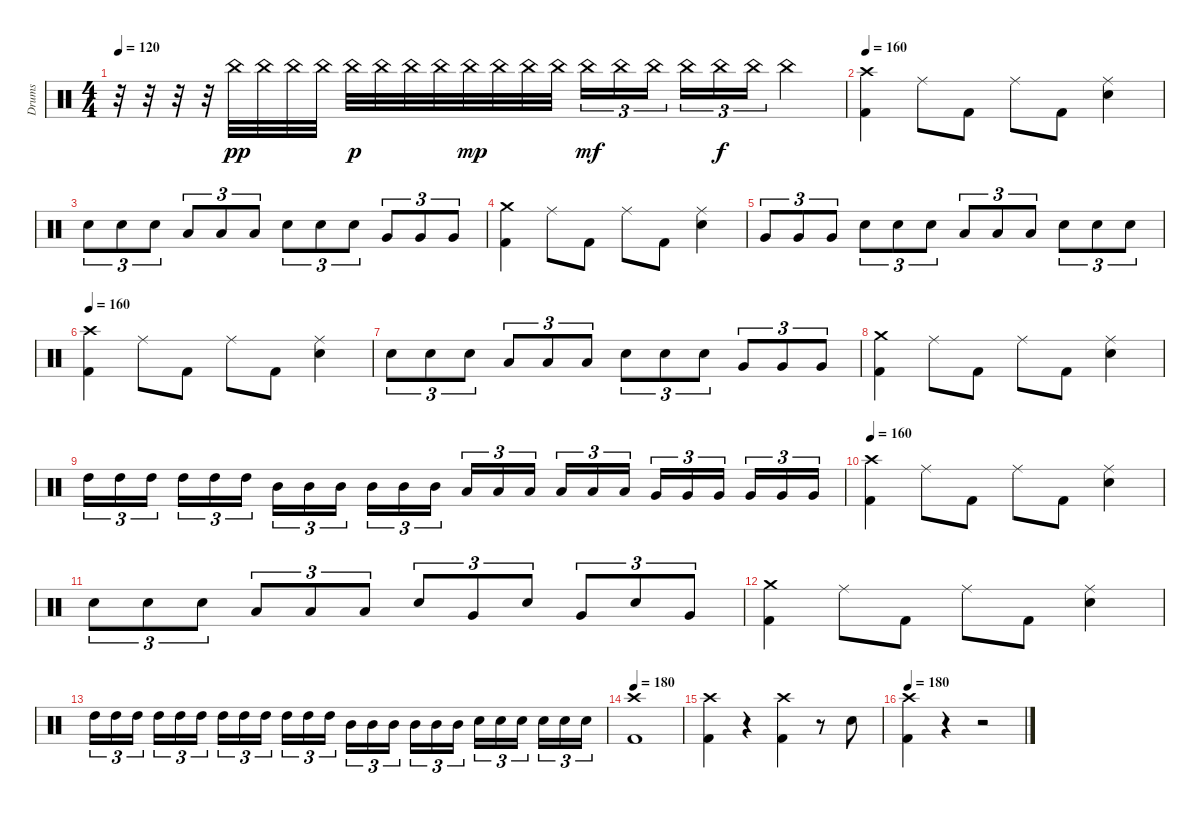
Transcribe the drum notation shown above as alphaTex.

\track ("Drums" "Drums") {instrument percussion}
\staff {score}
\articulation defaults
\ts (4 4)
\tempo 120
\clef neutral
\ks c
r.32{dy f} r.32 r.32 r.32 "China (hit)".32{dy pp} "China (hit)".32 "China (hit)".32 "China (hit)".32 "China (hit)".32{dy p} "China (hit)".32 "China (hit)".32 "China (hit)".32 "China (hit)".32{dy mp} "China (hit)".32 "China (hit)".32 "China (hit)".32 "China (hit)".16{tu (3 2) dy mf} "China (hit)".16{tu (3 2)} "China (hit)".16{tu (3 2)} "China (hit)".16{tu (3 2)} "China (hit)".16{tu (3 2) dy f} "China (hit)".16{tu (3 2)} "China (hit)".4 |
\tempo 160
("Crash high (hit)" "Kick (hit) 2").4 "Ride (middle)".8 "Kick (hit) 2".8 "Ride (middle)".8 "Kick (hit) 2".8 ("Ride (middle)" "Electric Snare (hit)").4 |
"Electric Snare (hit)".8{tu (3 2)} "Electric Snare (hit)".8{tu (3 2)} "Electric Snare (hit)".8{tu (3 2)} "Low Tom (hit)".8{tu (3 2)} "Low Tom (hit)".8{tu (3 2)} "Low Tom (hit)".8{tu (3 2)} "Electric Snare (hit)".8{tu (3 2)} "Electric Snare (hit)".8{tu (3 2)} "Electric Snare (hit)".8{tu (3 2)} "Very Low Tom (hit)".8{tu (3 2)} "Very Low Tom (hit)".8{tu (3 2)} "Very Low Tom (hit)".8{tu (3 2)} |
("Crash medium (hit)" "Kick (hit) 2").4 "Ride (middle)".8 "Kick (hit) 2".8 "Ride (middle)".8 "Kick (hit) 2".8 ("Ride (middle)" "Electric Snare (hit)").4 |
"Very Low Tom (hit)".8{tu (3 2)} "Very Low Tom (hit)".8{tu (3 2)} "Very Low Tom (hit)".8{tu (3 2)} "Electric Snare (hit)".8{tu (3 2)} "Electric Snare (hit)".8{tu (3 2)} "Electric Snare (hit)".8{tu (3 2)} "Low Tom (hit)".8{tu (3 2)} "Low Tom (hit)".8{tu (3 2)} "Low Tom (hit)".8{tu (3 2)} "Electric Snare (hit)".8{tu (3 2)} "Electric Snare (hit)".8{tu (3 2)} "Electric Snare (hit)".8{tu (3 2)} |
\tempo 160
("Crash high (hit)" "Kick (hit) 2").4 "Ride (middle)".8 "Kick (hit) 2".8 "Ride (middle)".8 "Kick (hit) 2".8 ("Ride (middle)" "Electric Snare (hit)").4 |
"Electric Snare (hit)".8{tu (3 2)} "Electric Snare (hit)".8{tu (3 2)} "Electric Snare (hit)".8{tu (3 2)} "Low Tom (hit)".8{tu (3 2)} "Low Tom (hit)".8{tu (3 2)} "Low Tom (hit)".8{tu (3 2)} "Electric Snare (hit)".8{tu (3 2)} "Electric Snare (hit)".8{tu (3 2)} "Electric Snare (hit)".8{tu (3 2)} "Very Low Tom (hit)".8{tu (3 2)} "Very Low Tom (hit)".8{tu (3 2)} "Very Low Tom (hit)".8{tu (3 2)} |
("Crash medium (hit)" "Kick (hit) 2").4 "Ride (middle)".8 "Kick (hit) 2".8 "Ride (middle)".8 "Kick (hit) 2".8 ("Ride (middle)" "Electric Snare (hit)").4 |
"High Tom (hit)".16{tu (3 2)} "High Tom (hit)".16{tu (3 2)} "High Tom (hit)".16{tu (3 2)} "High Tom (hit)".16{tu (3 2)} "High Tom (hit)".16{tu (3 2)} "High Tom (hit)".16{tu (3 2)} "Mid Tom (hit)".16{tu (3 2)} "Mid Tom (hit)".16{tu (3 2)} "Mid Tom (hit)".16{tu (3 2)} "Mid Tom (hit)".16{tu (3 2)} "Mid Tom (hit)".16{tu (3 2)} "Mid Tom (hit)".16{tu (3 2)} "Low Tom (hit)".16{tu (3 2)} "Low Tom (hit)".16{tu (3 2)} "Low Tom (hit)".16{tu (3 2)} "Low Tom (hit)".16{tu (3 2)} "Low Tom (hit)".16{tu (3 2)} "Low Tom (hit)".16{tu (3 2)} "Very Low Tom (hit)".16{tu (3 2)} "Very Low Tom (hit)".16{tu (3 2)} "Very Low Tom (hit)".16{tu (3 2)} "Very Low Tom (hit)".16{tu (3 2)} "Very Low Tom (hit)".16{tu (3 2)} "Very Low Tom (hit)".16{tu (3 2)} |
\tempo 160
("Crash high (hit)" "Kick (hit) 2").4 "Ride (middle)".8 "Kick (hit) 2".8 "Ride (middle)".8 "Kick (hit) 2".8 ("Ride (middle)" "Electric Snare (hit)").4 |
"Electric Snare (hit)".8{tu (3 2)} "Electric Snare (hit)".8{tu (3 2)} "Electric Snare (hit)".8{tu (3 2)} "Low Tom (hit)".8{tu (3 2)} "Low Tom (hit)".8{tu (3 2)} "Low Tom (hit)".8{tu (3 2)} "Electric Snare (hit)".8{tu (3 2)} "Very Low Tom (hit)".8{tu (3 2)} "Electric Snare (hit)".8{tu (3 2)} "Very Low Tom (hit)".8{tu (3 2)} "Electric Snare (hit)".8{tu (3 2)} "Very Low Tom (hit)".8{tu (3 2)} |
("Crash medium (hit)" "Kick (hit) 2").4 "Ride (middle)".8 "Kick (hit) 2".8 "Ride (middle)".8 "Kick (hit) 2".8 ("Ride (middle)" "Electric Snare (hit)").4 |
"High Tom (hit)".16{tu (3 2)} "High Tom (hit)".16{tu (3 2)} "High Tom (hit)".16{tu (3 2)} "High Tom (hit)".16{tu (3 2)} "High Tom (hit)".16{tu (3 2)} "High Tom (hit)".16{tu (3 2)} "High Tom (hit)".16{tu (3 2)} "High Tom (hit)".16{tu (3 2)} "High Tom (hit)".16{tu (3 2)} "High Tom (hit)".16{tu (3 2)} "High Tom (hit)".16{tu (3 2)} "High Tom (hit)".16{tu (3 2)} "Mid Tom (hit)".16{tu (3 2)} "Mid Tom (hit)".16{tu (3 2)} "Mid Tom (hit)".16{tu (3 2)} "Mid Tom (hit)".16{tu (3 2)} "Mid Tom (hit)".16{tu (3 2)} "Mid Tom (hit)".16{tu (3 2)} "Electric Snare (hit)".16{tu (3 2)} "Electric Snare (hit)".16{tu (3 2)} "Electric Snare (hit)".16{tu (3 2)} "Electric Snare (hit)".16{tu (3 2)} "Electric Snare (hit)".16{tu (3 2)} "Electric Snare (hit)".16{tu (3 2)} |
\tempo 180
("Crash high (hit)" "Kick (hit) 2").1 |
("Crash high (hit)" "Kick (hit) 2").4 r.4 ("Crash high (hit)" "Kick (hit) 2").4 r.8 "Electric Snare (hit)".8 |
\tempo 180
("Crash high (hit)" "Kick (hit) 2").4 r.4 r.2
